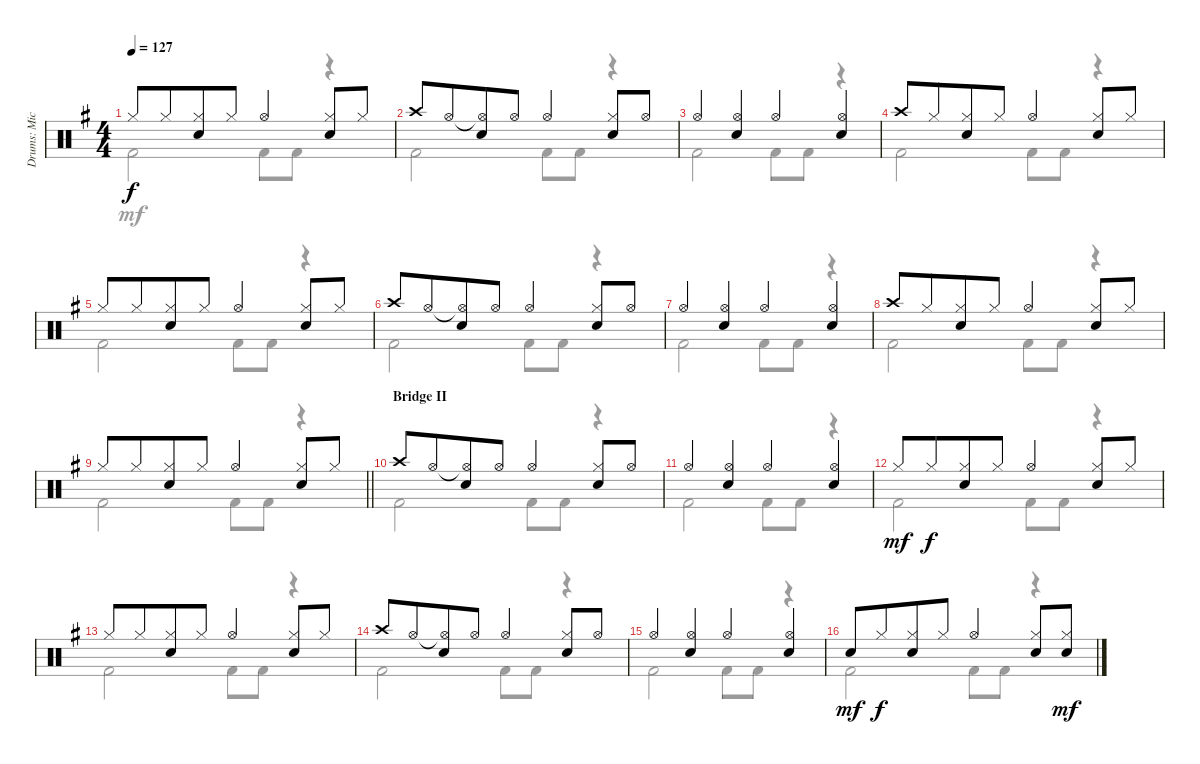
\track ("Drums: Mick" "Drums: Mic") {instrument percussion}
\staff {score}
\articulation defaults
\voice
\ts (4 4)
\tempo 127
\clef neutral
\ks g "Hi-Hat (closed)".8{dy f} "Hi-Hat (closed)".8{beam merge}
("Hi-Hat (closed)" "Snare (hit) 2").8 "Hi-Hat (closed)".8 "Hi-Hat (open)".4{beam merge} ("Hi-Hat (closed)" "Snare (hit) 2").8 "Hi-Hat (closed)".8 |
"Crash high (hit)".8 "Hi-Hat (open)".8{beam merge} ("Hi-Hat (open)"{t} "Snare (hit) 2").8 "Hi-Hat (open)".8 "Hi-Hat (open)".4{beam merge} ("Hi-Hat (closed)" "Snare (hit) 2").8 "Hi-Hat (open)".8 |
"Hi-Hat (open)".4{beam merge} ("Hi-Hat (open)" "Snare (hit) 2").4 "Hi-Hat (open)".4{beam merge} ("Hi-Hat (open)" "Snare (hit) 2").4 |
"Crash high (hit)".8 "Hi-Hat (closed)".8{beam merge} ("Hi-Hat (closed)" "Snare (hit) 2").8 "Hi-Hat (closed)".8 "Hi-Hat (open)".4{beam merge} ("Hi-Hat (closed)" "Snare (hit) 2").8 "Hi-Hat (closed)".8 |
"Hi-Hat (closed)".8 "Hi-Hat (closed)".8{beam merge} ("Hi-Hat (closed)" "Snare (hit) 2").8 "Hi-Hat (closed)".8 "Hi-Hat (open)".4{beam merge} ("Hi-Hat (closed)" "Snare (hit) 2").8 "Hi-Hat (closed)".8 |
"Crash high (hit)".8 "Hi-Hat (open)".8{beam merge} ("Hi-Hat (open)"{t} "Snare (hit) 2").8 "Hi-Hat (open)".8 "Hi-Hat (open)".4{beam merge} ("Hi-Hat (closed)" "Snare (hit) 2").8 "Hi-Hat (open)".8 |
"Hi-Hat (open)".4{beam merge} ("Hi-Hat (open)" "Snare (hit) 2").4 "Hi-Hat (open)".4{beam merge} ("Hi-Hat (open)" "Snare (hit) 2").4 |
"Crash high (hit)".8 "Hi-Hat (closed)".8{beam merge} ("Hi-Hat (closed)" "Snare (hit) 2").8 "Hi-Hat (closed)".8 "Hi-Hat (open)".4{beam merge} ("Hi-Hat (closed)" "Snare (hit) 2").8 "Hi-Hat (closed)".8 |
\barLineRight lightlight "Hi-Hat (closed)".8 "Hi-Hat (closed)".8{beam merge}
("Hi-Hat (closed)" "Snare (hit) 2").8 "Hi-Hat (closed)".8 "Hi-Hat (open)".4{beam merge} ("Hi-Hat (closed)" "Snare (hit) 2").8 "Hi-Hat (closed)".8 |
\section ("" "Bridge II")
"Crash high (hit)".8 "Hi-Hat (open)".8{beam merge} ("Hi-Hat (open)"{t} "Snare (hit) 2").8 "Hi-Hat (open)".8 "Hi-Hat (open)".4{beam merge} ("Hi-Hat (closed)" "Snare (hit) 2").8 "Hi-Hat (open)".8 |
"Hi-Hat (open)".4{beam merge} ("Hi-Hat (open)" "Snare (hit) 2").4 "Hi-Hat (open)".4{beam merge} ("Hi-Hat (open)" "Snare (hit) 2").4 |
"Hi-Hat (closed)".8{dy mf} "Hi-Hat (closed)".8{dy f beam merge} ("Hi-Hat (closed)" "Snare (hit) 2").8 "Hi-Hat (closed)".8 "Hi-Hat (open)".4{beam merge} ("Hi-Hat (closed)" "Snare (hit) 2").8 "Hi-Hat (closed)".8 |
"Hi-Hat (closed)".8 "Hi-Hat (closed)".8{beam merge} ("Hi-Hat (closed)" "Snare (hit) 2").8 "Hi-Hat (closed)".8 "Hi-Hat (open)".4{beam merge} ("Hi-Hat (closed)" "Snare (hit) 2").8 "Hi-Hat (closed)".8 |
"Crash high (hit)".8 "Hi-Hat (open)".8{beam merge} ("Hi-Hat (open)"{t} "Snare (hit) 2").8 "Hi-Hat (open)".8 "Hi-Hat (open)".4{beam merge} ("Hi-Hat (closed)" "Snare (hit) 2").8 "Hi-Hat (open)".8 |
"Hi-Hat (open)".4{beam merge} ("Hi-Hat (open)" "Snare (hit) 2").4 "Hi-Hat (open)".4{beam merge} ("Hi-Hat (open)" "Snare (hit) 2").4 |
"Snare (hit)".8{dy mf} "Hi-Hat (closed)".8{dy f beam merge} ("Hi-Hat (closed)" "Snare (hit) 2").8 "Hi-Hat (closed)".8 "Hi-Hat (open)".4{beam merge} ("Hi-Hat (closed)" "Snare (hit) 2").8 ("Hi-Hat (closed)" "Snare (hit) 2").8{dy mf}
\voice
\clef neutral
\ottava regular
\simile none
\ks g "Kick (hit) 2".2{dy mf} "Kick (hit) 2".8 "Kick (hit) 2".8
r.4 |
"Kick (hit) 2".2 "Kick (hit) 2".8 "Kick (hit) 2".8 r.4 |
"Kick (hit) 2".2 "Kick (hit) 2".8 "Kick (hit) 2".8 r.4 |
"Kick (hit) 2".2 "Kick (hit) 2".8 "Kick (hit) 2".8 r.4 |
"Kick (hit) 2".2 "Kick (hit) 2".8 "Kick (hit) 2".8 r.4 |
"Kick (hit) 2".2 "Kick (hit) 2".8 "Kick (hit) 2".8 r.4 |
"Kick (hit) 2".2 "Kick (hit) 2".8 "Kick (hit) 2".8 r.4 |
"Kick (hit) 2".2 "Kick (hit) 2".8 "Kick (hit) 2".8 r.4 |
\barLineRight lightlight "Kick (hit) 2".2 "Kick (hit) 2".8 "Kick (hit) 2".8
r.4 |
"Kick (hit) 2".2 "Kick (hit) 2".8 "Kick (hit) 2".8 r.4 |
"Kick (hit) 2".2 "Kick (hit) 2".8 "Kick (hit) 2".8 r.4 |
"Kick (hit) 2".2 "Kick (hit) 2".8 "Kick (hit) 2".8 r.4 |
"Kick (hit) 2".2 "Kick (hit) 2".8 "Kick (hit) 2".8 r.4 |
"Kick (hit) 2".2 "Kick (hit) 2".8 "Kick (hit) 2".8 r.4 |
"Kick (hit) 2".2 "Kick (hit) 2".8 "Kick (hit) 2".8 r.4 |
"Kick (hit) 2".2 "Kick (hit) 2".8 "Kick (hit) 2".8 r.4
